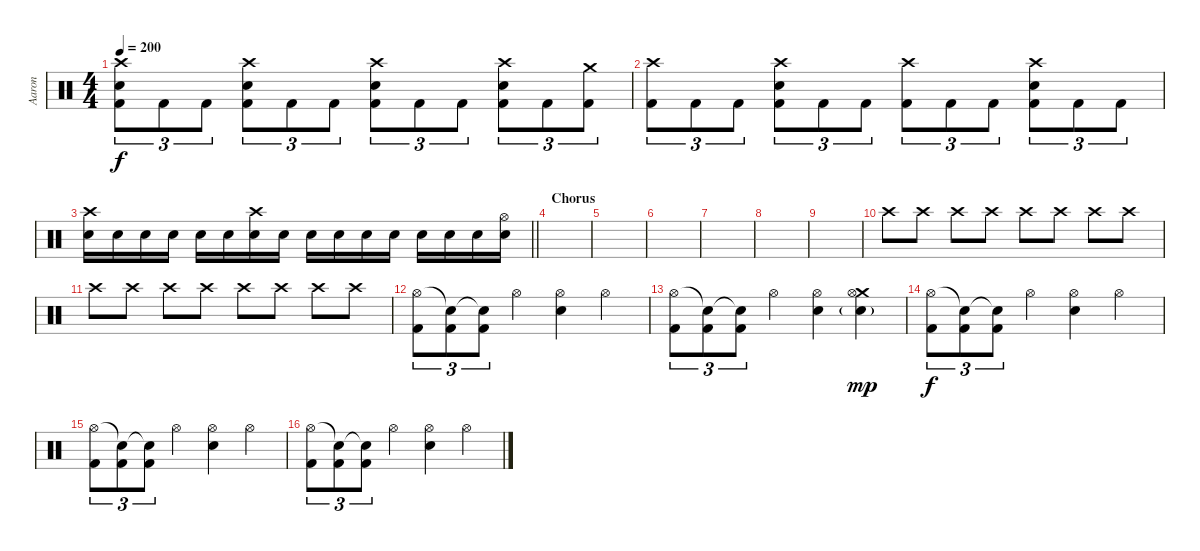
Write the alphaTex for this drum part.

\track ("Aaron" "Aaron") {instrument percussion}
\staff {score}
\articulation defaults
\ts (4 4)
\tempo 200
\clef neutral
\ks c
("Crash high (hit)" "Snare (hit) 2" "Kick (hit) 2").8{tu (3 2) dy f} "Kick (hit) 2".8{tu (3 2)} "Kick (hit) 2".8{tu (3 2)} ("Crash high (hit)" "Snare (hit) 2" "Kick (hit) 2").8{tu (3 2)} "Kick (hit) 2".8{tu (3 2)} "Kick (hit) 2".8{tu (3 2)} ("Crash high (hit)" "Snare (hit) 2" "Kick (hit) 2").8{tu (3 2)} "Kick (hit) 2".8{tu (3 2)} "Kick (hit) 2".8{tu (3 2)} ("Crash high (hit)" "Snare (hit) 2" "Kick (hit) 2").8{tu (3 2)} "Kick (hit) 2".8{tu (3 2)} ("Crash medium (hit)" "Kick (hit) 2").8{tu (3 2)} |
("Crash high (hit)" "Kick (hit) 2").8{tu (3 2)} "Kick (hit) 2".8{tu (3 2)} "Kick (hit) 2".8{tu (3 2)} ("Crash high (hit)" "Snare (hit) 2" "Kick (hit) 2").8{tu (3 2)} "Kick (hit) 2".8{tu (3 2)} "Kick (hit) 2".8{tu (3 2)} ("Crash high (hit)" "Kick (hit) 2").8{tu (3 2)} "Kick (hit) 2".8{tu (3 2)} "Kick (hit) 2".8{tu (3 2)} ("Crash high (hit)" "Snare (hit) 2" "Kick (hit) 2").8{tu (3 2)} "Kick (hit) 2".8{tu (3 2)} "Kick (hit) 2".8{tu (3 2)} |
\barLineRight lightlight
("Crash high (hit)" "Snare (hit) 2").16 "Snare (hit) 2".16 "Snare (hit) 2".16 "Snare (hit) 2".16 "Snare (hit) 2".16 "Snare (hit) 2".16 ("Crash high (hit)" "Snare (hit) 2").16 "Snare (hit) 2".16 "Snare (hit) 2".16 "Snare (hit) 2".16 "Snare (hit) 2".16 "Snare (hit) 2".16 "Snare (hit) 2".16 "Snare (hit) 2".16 "Snare (hit) 2".16 ("Hi-Hat (open)" "Snare (hit) 2").16 |
\section ("" "Chorus")
|
|
|
|
|
|
"Crash high (hit)".8{volume 0} "Crash high (hit)".8{volume 1} "Crash high (hit)".8{volume 1} "Crash high (hit)".8{volume 2} "Crash high (hit)".8{volume 2} "Crash high (hit)".8{volume 3} "Crash high (hit)".8{volume 4} "Crash high (hit)".8{volume 4} |
"Crash high (hit)".8{volume 4} "Crash high (hit)".8{volume 6} "Crash high (hit)".8{volume 6} "Crash high (hit)".8{volume 7} "Crash high (hit)".8{volume 9} "Crash high (hit)".8{volume 9} "Crash high (hit)".8{volume 10} "Crash high (hit)".8{volume 11} |
("Hi-Hat (open)" "Kick (hit) 2").8{tu (3 2)} ("Snare (hit)"{t} "Kick (hit) 2").8{tu (3 2)} ("Snare (hit)"{t} "Kick (hit) 2").8{tu (3 2)} "Hi-Hat (open)".4 ("Hi-Hat (open)" "Snare (hit) 2").4 "Hi-Hat (open)".4 |
("Hi-Hat (open)" "Kick (hit) 2").8{tu (3 2)} ("Snare (hit)"{t} "Kick (hit) 2").8{tu (3 2)} ("Snare (hit)"{t} "Kick (hit) 2").8{tu (3 2)} "Hi-Hat (open)".4 ("Hi-Hat (open)" "Snare (hit) 2").4 ("Crash medium (hit)" "Snare (hit) 2"{g} "Hi-Hat (open)").4{dy mp} |
("Hi-Hat (open)" "Kick (hit) 2").8{tu (3 2) dy f} ("Snare (hit)"{t} "Kick (hit) 2").8{tu (3 2)} ("Snare (hit)"{t} "Kick (hit) 2").8{tu (3 2)} "Hi-Hat (open)".4 ("Hi-Hat (open)" "Snare (hit) 2").4 "Hi-Hat (open)".4 |
("Hi-Hat (open)" "Kick (hit) 2").8{tu (3 2)} ("Snare (hit)"{t} "Kick (hit) 2").8{tu (3 2)} ("Snare (hit)"{t} "Kick (hit) 2").8{tu (3 2)} "Hi-Hat (open)".4 ("Hi-Hat (open)" "Snare (hit) 2").4 "Hi-Hat (open)".4 |
("Hi-Hat (open)" "Kick (hit) 2").8{tu (3 2)} ("Snare (hit)"{t} "Kick (hit) 2").8{tu (3 2)} ("Snare (hit)"{t} "Kick (hit) 2").8{tu (3 2)} "Hi-Hat (open)".4 ("Hi-Hat (open)" "Snare (hit) 2").4 "Hi-Hat (open)".4
